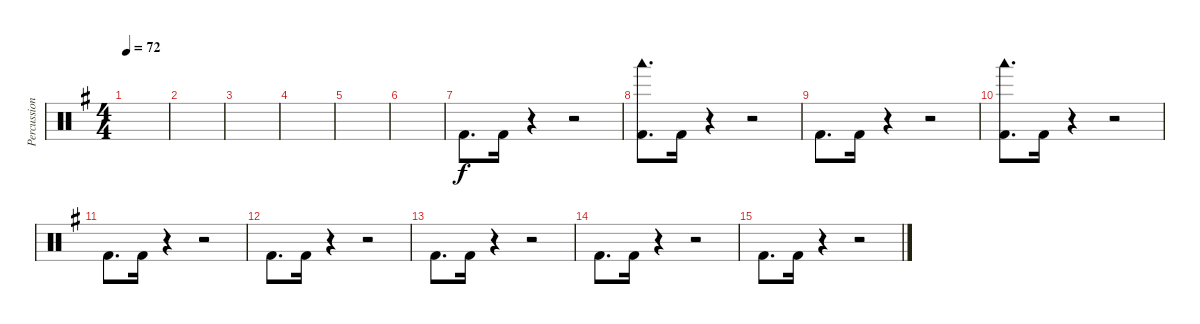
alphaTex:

\track ("Percussion" "Percussion") {instrument percussion}
\staff {score}
\articulation defaults
\ts (4 4)
\tempo 72
\clef neutral
\ks g
|
|
|
|
|
|
"Kick (hit) 2".8{d beam Down} "Kick (hit) 2".16{beam Down} r.4 r.2 |
("Woodblock low (hit)" "Kick (hit) 2").8{d beam Down} "Kick (hit) 2".16{beam Down} r.4 r.2 |
"Kick (hit) 2".8{d beam Down} "Kick (hit) 2".16{beam Down} r.4 r.2 |
("Woodblock low (hit)" "Kick (hit) 2").8{d beam Down} "Kick (hit) 2".16{beam Down} r.4 r.2 |
"Kick (hit) 2".8{d beam Down} "Kick (hit) 2".16{beam Down} r.4 r.2 |
"Kick (hit) 2".8{d beam Down} "Kick (hit) 2".16{beam Down} r.4 r.2 |
"Kick (hit) 2".8{d beam Down} "Kick (hit) 2".16{beam Down} r.4 r.2 |
"Kick (hit) 2".8{d beam Down} "Kick (hit) 2".16{beam Down} r.4 r.2 |
"Kick (hit) 2".8{d beam Down} "Kick (hit) 2".16{beam Down} r.4 r.2
